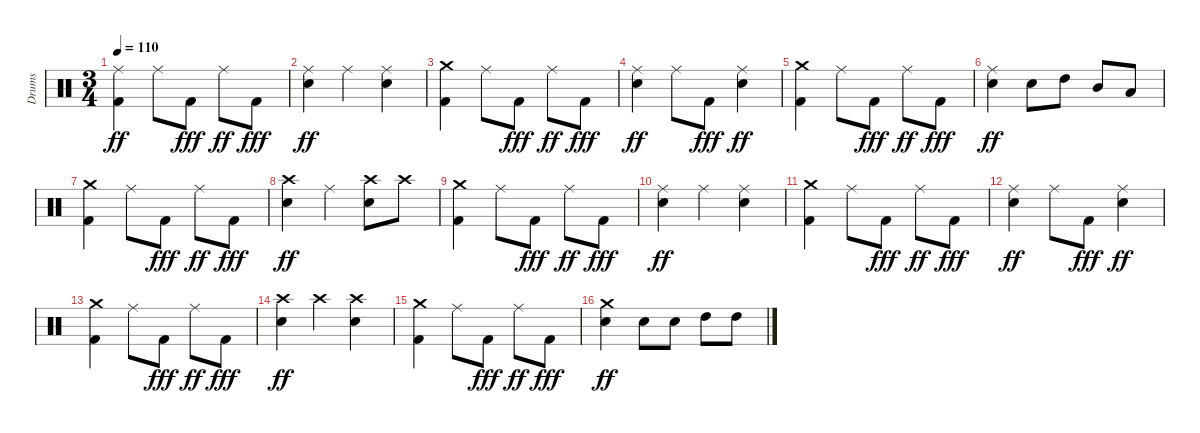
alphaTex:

\track ("Drums" "Drums") {instrument percussion}
\staff {score}
\articulation defaults
\ts (3 4)
\tempo 110
\clef neutral
\ks c
("Ride (middle)" "Kick (hit) 2").4{dy ff} "Ride (middle)".8 "Kick (hit) 2".8{dy fff} "Ride (middle)".8{dy ff} "Kick (hit) 2".8{dy fff} |
("Ride (middle)" "Snare (hit) 2").4{dy ff} "Ride (middle)".4 ("Ride (middle)" "Snare (hit) 2").4 |
("Crash medium (hit)" "Kick (hit) 2").4 "Ride (middle)".8 "Kick (hit) 2".8{dy fff} "Ride (middle)".8{dy ff} "Kick (hit) 2".8{dy fff} |
("Ride (middle)" "Snare (hit) 2").4{dy ff} "Ride (middle)".8 "Kick (hit) 2".8{dy fff} ("Ride (middle)" "Snare (hit) 2").4{dy ff} |
("Crash medium (hit)" "Kick (hit) 2").4 "Ride (middle)".8 "Kick (hit) 2".8{dy fff} "Ride (middle)".8{dy ff} "Kick (hit) 2".8{dy fff} |
("Ride (middle)" "Snare (hit) 2").4{dy ff} "Snare (hit) 2".8 "High Tom (hit)".8 "Mid Tom (hit)".8 "Low Tom (hit)".8 |
("Crash medium (hit)" "Kick (hit) 2").4 "Ride (middle)".8 "Kick (hit) 2".8{dy fff} "Ride (middle)".8{dy ff} "Kick (hit) 2".8{dy fff} |
("Crash high (hit)" "Snare (hit) 2").4{dy ff} "Ride (middle)".4 ("Crash high (hit)" "Snare (hit) 2").8 "Crash high (hit)".8 |
("Crash medium (hit)" "Kick (hit) 2").4 "Ride (middle)".8 "Kick (hit) 2".8{dy fff} "Ride (middle)".8{dy ff} "Kick (hit) 2".8{dy fff} |
("Ride (middle)" "Snare (hit) 2").4{dy ff} "Ride (middle)".4 ("Ride (middle)" "Snare (hit) 2").4 |
("Crash medium (hit)" "Kick (hit) 2").4 "Ride (middle)".8 "Kick (hit) 2".8{dy fff} "Ride (middle)".8{dy ff} "Kick (hit) 2".8{dy fff} |
("Ride (middle)" "Snare (hit) 2").4{dy ff} "Ride (middle)".8 "Kick (hit) 2".8{dy fff} ("Ride (middle)" "Snare (hit) 2").4{dy ff} |
("Crash medium (hit)" "Kick (hit) 2").4 "Ride (middle)".8 "Kick (hit) 2".8{dy fff} "Ride (middle)".8{dy ff} "Kick (hit) 2".8{dy fff} |
("Crash high (hit)" "Snare (hit) 2").4{dy ff} "Crash high (hit)".4 ("Crash high (hit)" "Snare (hit) 2").4 |
("Crash medium (hit)" "Kick (hit) 2").4 "Ride (middle)".8 "Kick (hit) 2".8{dy fff} "Ride (middle)".8{dy ff} "Kick (hit) 2".8{dy fff} |
("Crash medium (hit)" "Snare (hit) 2").4{dy ff} "Snare (hit) 2".8 "Snare (hit) 2".8 "High Tom (hit)".8 "High Tom (hit)".8
